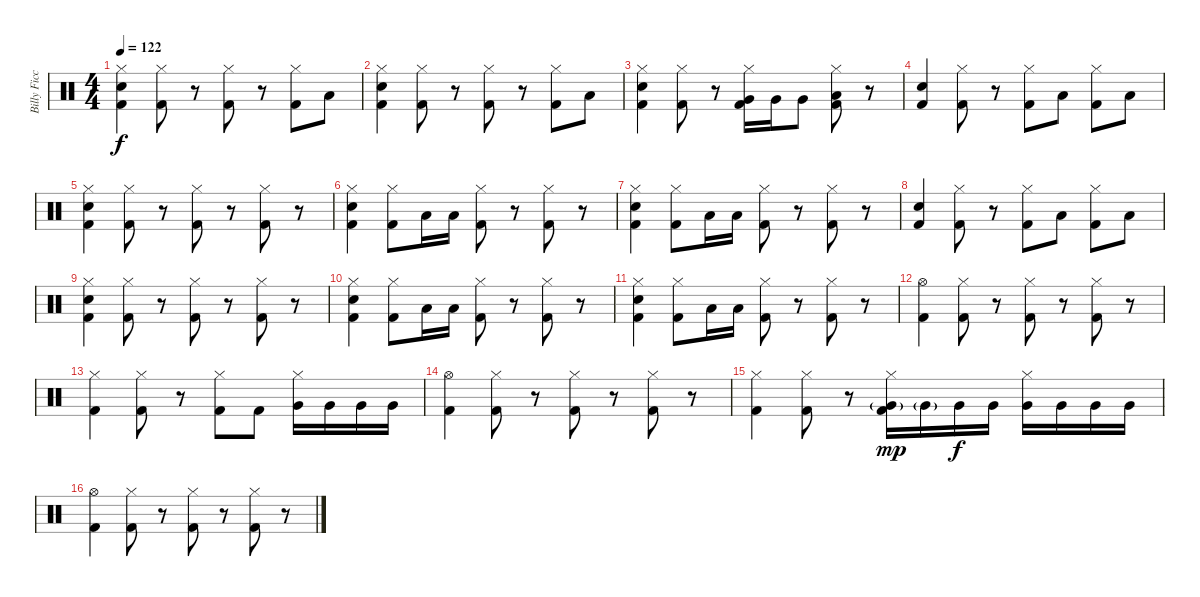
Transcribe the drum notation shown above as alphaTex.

\track ("Billy Ficca" "Billy Ficc") {instrument percussion}
\staff {score}
\articulation defaults
\ts (4 4)
\tempo 122
\clef neutral
\ks c
("Hi-Hat (closed)" "Electric Snare (hit)" "Kick (hit) 2").4{dy f} ("Hi-Hat (closed)" "Kick (hit) 2").8 r.8 ("Hi-Hat (closed)" "Kick (hit) 2").8 r.8 ("Hi-Hat (closed)" "Kick (hit) 2").8 "Low Floor Tom (hit)".8 |
("Hi-Hat (closed)" "Electric Snare (hit)" "Kick (hit) 2").4 ("Hi-Hat (closed)" "Kick (hit) 2").8 r.8 ("Hi-Hat (closed)" "Kick (hit) 2").8 r.8 ("Hi-Hat (closed)" "Kick (hit) 2").8 "Low Floor Tom (hit)".8 |
("Hi-Hat (closed)" "Electric Snare (hit)" "Kick (hit) 2").4 ("Hi-Hat (closed)" "Kick (hit) 2").8 r.8 ("Hi-Hat (closed)" "Very Low Tom (hit)" "Kick (hit) 2").16 "Very Low Tom (hit)".16 "Very Low Tom (hit)".8 ("Hi-Hat (closed)" "Low Floor Tom (hit)" "Kick (hit) 2").8 r.8 |
("Electric Snare (hit)" "Kick (hit) 2").4 ("Hi-Hat (closed)" "Kick (hit) 2").8 r.8 ("Hi-Hat (closed)" "Kick (hit) 2").8 "Low Floor Tom (hit)".8 ("Hi-Hat (closed)" "Kick (hit) 2").8 "Low Floor Tom (hit)".8 |
("Hi-Hat (closed)" "Electric Snare (hit)" "Kick (hit) 2").4 ("Hi-Hat (closed)" "Kick (hit) 2").8 r.8 ("Hi-Hat (closed)" "Kick (hit) 2").8 r.8 ("Hi-Hat (closed)" "Kick (hit) 2").8 r.8 |
("Hi-Hat (closed)" "Electric Snare (hit)" "Kick (hit) 2").4 ("Hi-Hat (closed)" "Kick (hit) 2").8 "Low Floor Tom (hit)".16 "Low Floor Tom (hit)".16 ("Hi-Hat (closed)" "Kick (hit) 2").8 r.8 ("Hi-Hat (closed)" "Kick (hit) 2").8 r.8 |
("Hi-Hat (closed)" "Electric Snare (hit)" "Kick (hit) 2").4 ("Hi-Hat (closed)" "Kick (hit) 2").8 "Low Floor Tom (hit)".16 "Low Floor Tom (hit)".16 ("Hi-Hat (closed)" "Kick (hit) 2").8 r.8 ("Hi-Hat (closed)" "Kick (hit) 2").8 r.8 |
("Electric Snare (hit)" "Kick (hit) 2").4 ("Hi-Hat (closed)" "Kick (hit) 2").8 r.8 ("Hi-Hat (closed)" "Kick (hit) 2").8 "Low Floor Tom (hit)".8 ("Hi-Hat (closed)" "Kick (hit) 2").8 "Low Floor Tom (hit)".8 |
("Hi-Hat (closed)" "Electric Snare (hit)" "Kick (hit) 2").4 ("Hi-Hat (closed)" "Kick (hit) 2").8 r.8 ("Hi-Hat (closed)" "Kick (hit) 2").8 r.8 ("Hi-Hat (closed)" "Kick (hit) 2").8 r.8 |
("Hi-Hat (closed)" "Electric Snare (hit)" "Kick (hit) 2").4 ("Hi-Hat (closed)" "Kick (hit) 2").8 "Low Floor Tom (hit)".16 "Low Floor Tom (hit)".16 ("Hi-Hat (closed)" "Kick (hit) 2").8 r.8 ("Hi-Hat (closed)" "Kick (hit) 2").8 r.8 |
("Hi-Hat (closed)" "Electric Snare (hit)" "Kick (hit) 2").4 ("Hi-Hat (closed)" "Kick (hit) 2").8 "Low Floor Tom (hit)".16 "Low Floor Tom (hit)".16 ("Hi-Hat (closed)" "Kick (hit) 2").8 r.8 ("Hi-Hat (closed)" "Kick (hit) 2").8 r.8 |
("Hi-Hat (open)" "Kick (hit) 2").4 ("Hi-Hat (closed)" "Kick (hit) 2").8 r.8 ("Hi-Hat (closed)" "Kick (hit) 2").8 r.8 ("Hi-Hat (closed)" "Kick (hit) 2").8 r.8 |
("Hi-Hat (closed)" "Kick (hit) 2").4 ("Hi-Hat (closed)" "Kick (hit) 2").8 r.8 ("Hi-Hat (closed)" "Kick (hit) 2").8 "Kick (hit) 2".8 ("Hi-Hat (closed)" "Very Low Tom (hit)").16 "Very Low Tom (hit)".16 "Very Low Tom (hit)".16 "Very Low Tom (hit)".16 |
("Hi-Hat (open)" "Kick (hit) 2").4 ("Hi-Hat (closed)" "Kick (hit) 2").8 r.8 ("Hi-Hat (closed)" "Kick (hit) 2").8 r.8 ("Hi-Hat (closed)" "Kick (hit) 2").8 r.8 |
("Hi-Hat (closed)" "Kick (hit) 2").4 ("Hi-Hat (closed)" "Kick (hit) 2").8 r.8 ("Hi-Hat (closed)" "Very Low Tom (hit)"{g} "Kick (hit) 2").16{dy mp} "Very Low Tom (hit)"{g}.16 "Very Low Tom (hit)".16{dy f} "Very Low Tom (hit)".16 ("Hi-Hat (closed)" "Very Low Tom (hit)").16 "Very Low Tom (hit)".16 "Very Low Tom (hit)".16 "Very Low Tom (hit)".16 |
("Hi-Hat (open)" "Kick (hit) 2").4 ("Hi-Hat (closed)" "Kick (hit) 2").8 r.8 ("Hi-Hat (closed)" "Kick (hit) 2").8 r.8 ("Hi-Hat (closed)" "Kick (hit) 2").8 r.8
